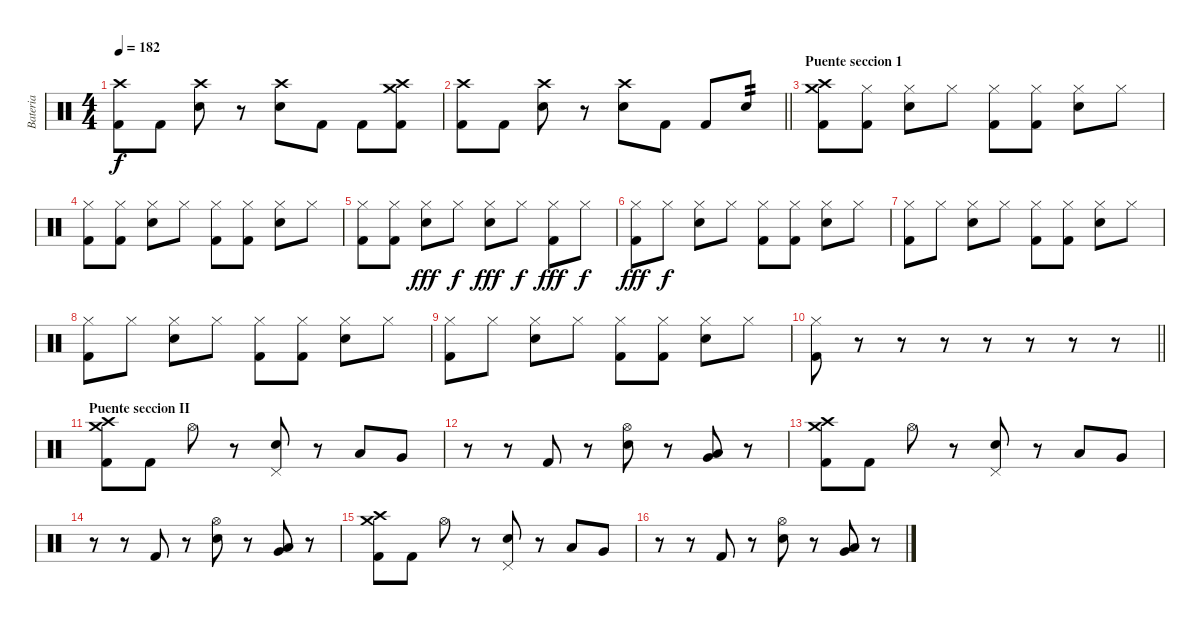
\track ("Bateria" "Bateria") {instrument percussion}
\staff {score}
\articulation defaults
\ts (4 4)
\tempo 182
\clef neutral
\ks c
("Crash high (hit)" "Kick (hit) 2").8{dy f} "Kick (hit) 2".8 ("Crash high (hit)" "Electric Snare (hit)").8 r.8 ("Crash high (hit)" "Electric Snare (hit)").8 "Kick (hit) 2".8 "Kick (hit) 2".8 ("Crash high (hit)" "Crash medium (hit)" "Kick (hit) 2").8 |
\barLineRight lightlight
("Crash high (hit)" "Kick (hit) 2").8 "Kick (hit) 2".8 ("Crash high (hit)" "Electric Snare (hit)").8 r.8 ("Crash high (hit)" "Electric Snare (hit)").8 "Kick (hit) 2".8 "Kick (hit) 2".8 "Electric Snare (hit)".8{tp 2} |
\section ("" "Puente seccion 1")
("Crash high (hit)" "Crash medium (hit)" "Kick (hit) 2").8 ("Hi-Hat (closed)" "Kick (hit) 2").8 ("Hi-Hat (closed)" "Electric Snare (hit)").8 "Hi-Hat (closed)".8 ("Hi-Hat (closed)" "Kick (hit) 2").8 ("Hi-Hat (closed)" "Kick (hit) 2").8 ("Hi-Hat (closed)" "Electric Snare (hit)").8 "Hi-Hat (closed)".8 |
("Hi-Hat (closed)" "Kick (hit) 2").8 ("Hi-Hat (closed)" "Kick (hit) 2").8 ("Hi-Hat (closed)" "Electric Snare (hit)").8 "Hi-Hat (closed)".8 ("Hi-Hat (closed)" "Kick (hit) 2").8 ("Hi-Hat (closed)" "Kick (hit) 2").8 ("Hi-Hat (closed)" "Electric Snare (hit)").8 "Hi-Hat (closed)".8 |
("Hi-Hat (closed)" "Kick (hit) 2").8 ("Hi-Hat (closed)" "Kick (hit) 2").8 ("Hi-Hat (closed)" "Electric Snare (hit)").8{dy fff} "Hi-Hat (closed)".8{dy f} ("Hi-Hat (closed)" "Electric Snare (hit)").8{dy fff} "Hi-Hat (closed)".8{dy f} ("Hi-Hat (closed)" "Kick (hit) 2").8{dy fff} "Hi-Hat (closed)".8{dy f} |
("Hi-Hat (closed)" "Kick (hit) 2").8{dy fff} "Hi-Hat (closed)".8{dy f} ("Hi-Hat (closed)" "Electric Snare (hit)").8 "Hi-Hat (closed)".8 ("Hi-Hat (closed)" "Kick (hit) 2").8 ("Hi-Hat (closed)" "Kick (hit) 2").8 ("Hi-Hat (closed)" "Electric Snare (hit)").8 "Hi-Hat (closed)".8 |
("Hi-Hat (closed)" "Kick (hit) 2").8 "Hi-Hat (closed)".8 ("Hi-Hat (closed)" "Electric Snare (hit)").8 "Hi-Hat (closed)".8 ("Hi-Hat (closed)" "Kick (hit) 2").8 ("Hi-Hat (closed)" "Kick (hit) 2").8 ("Hi-Hat (closed)" "Electric Snare (hit)").8 "Hi-Hat (closed)".8 |
("Hi-Hat (closed)" "Kick (hit) 2").8 "Hi-Hat (closed)".8 ("Hi-Hat (closed)" "Electric Snare (hit)").8 "Hi-Hat (closed)".8 ("Hi-Hat (closed)" "Kick (hit) 2").8 ("Hi-Hat (closed)" "Kick (hit) 2").8 ("Hi-Hat (closed)" "Electric Snare (hit)").8 "Hi-Hat (closed)".8 |
("Hi-Hat (closed)" "Kick (hit) 2").8 "Hi-Hat (closed)".8 ("Hi-Hat (closed)" "Electric Snare (hit)").8 "Hi-Hat (closed)".8 ("Hi-Hat (closed)" "Kick (hit) 2").8 ("Hi-Hat (closed)" "Kick (hit) 2").8 ("Hi-Hat (closed)" "Electric Snare (hit)").8 "Hi-Hat (closed)".8 |
\barLineRight lightlight
("Hi-Hat (closed)" "Kick (hit) 2").8 r.8 r.8 r.8 r.8 r.8 r.8 r.8 |
\section ("" "Puente seccion II")
("Crash high (hit)" "Crash medium (hit)" "Kick (hit) 2").8 "Kick (hit) 2".8 "Hi-Hat (open)".8 r.8 ("Pedal Hi-Hat (hit)" "Electric Snare (hit)").8 r.8 "Low Tom (hit)".8 "Very Low Tom (hit)".8 |
r.8 r.8 "Kick (hit) 2".8 r.8 ("Hi-Hat (open)" "Electric Snare (hit)").8 r.8 ("Low Tom (hit)" "Very Low Tom (hit)").8 r.8 |
("Crash high (hit)" "Crash medium (hit)" "Kick (hit) 2").8 "Kick (hit) 2".8 "Hi-Hat (open)".8 r.8 ("Pedal Hi-Hat (hit)" "Electric Snare (hit)").8 r.8 "Low Tom (hit)".8 "Very Low Tom (hit)".8 |
r.8 r.8 "Kick (hit) 2".8 r.8 ("Hi-Hat (open)" "Electric Snare (hit)").8 r.8 ("Low Tom (hit)" "Very Low Tom (hit)").8 r.8 |
("Crash high (hit)" "Crash medium (hit)" "Kick (hit) 2").8 "Kick (hit) 2".8 "Hi-Hat (open)".8 r.8 ("Pedal Hi-Hat (hit)" "Electric Snare (hit)").8 r.8 "Low Tom (hit)".8 "Very Low Tom (hit)".8 |
r.8 r.8 "Kick (hit) 2".8 r.8 ("Hi-Hat (open)" "Electric Snare (hit)").8 r.8 ("Low Tom (hit)" "Very Low Tom (hit)").8 r.8
